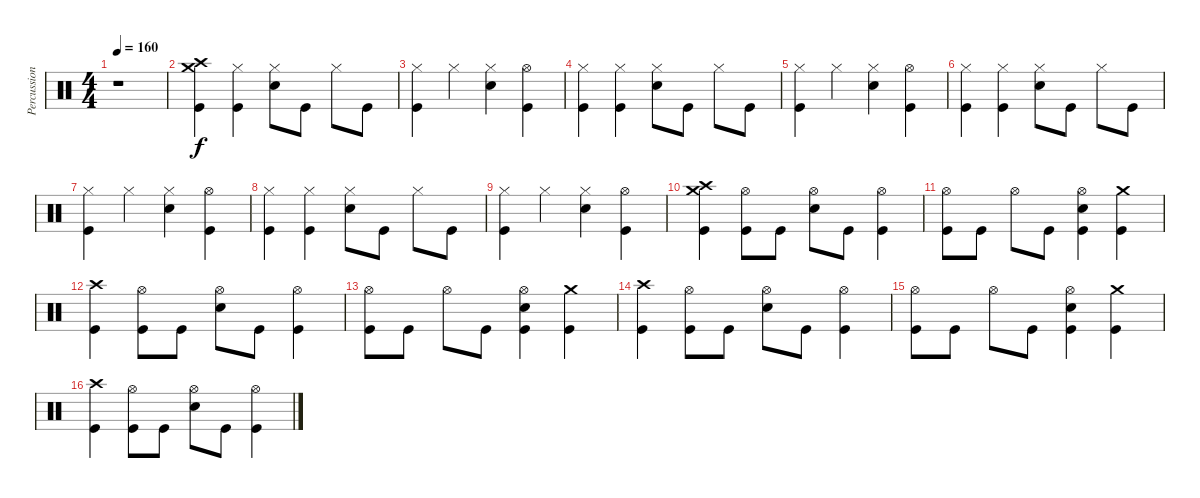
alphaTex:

\track ("Percussion" "Percussion") {instrument percussion}
\staff {score}
\articulation defaults
\ts (4 4)
\tempo 160
\clef neutral
\ks c
r.1{dy f} |
("Crash high (hit)" "Crash medium (hit)" "Kick (hit)").4 ("Hi-Hat (closed)" "Kick (hit)").4 ("Hi-Hat (closed)" "Electric Snare (hit)").8 "Kick (hit)".8 "Hi-Hat (closed)".8 "Kick (hit)".8 |
("Hi-Hat (closed)" "Kick (hit)").4 "Hi-Hat (closed)".4 ("Hi-Hat (closed)" "Electric Snare (hit)").4 ("Hi-Hat (open)" "Kick (hit)").4 |
("Hi-Hat (closed)" "Kick (hit)").4 ("Hi-Hat (closed)" "Kick (hit)").4 ("Hi-Hat (closed)" "Electric Snare (hit)").8 "Kick (hit)".8 "Hi-Hat (closed)".8 "Kick (hit)".8 |
("Hi-Hat (closed)" "Kick (hit)").4 "Hi-Hat (closed)".4 ("Hi-Hat (closed)" "Electric Snare (hit)").4 ("Hi-Hat (open)" "Kick (hit)").4 |
("Hi-Hat (closed)" "Kick (hit)").4 ("Hi-Hat (closed)" "Kick (hit)").4 ("Hi-Hat (closed)" "Electric Snare (hit)").8 "Kick (hit)".8 "Hi-Hat (closed)".8 "Kick (hit)".8 |
("Hi-Hat (closed)" "Kick (hit)").4 "Hi-Hat (closed)".4 ("Hi-Hat (closed)" "Electric Snare (hit)").4 ("Hi-Hat (open)" "Kick (hit)").4 |
("Hi-Hat (closed)" "Kick (hit)").4 ("Hi-Hat (closed)" "Kick (hit)").4 ("Hi-Hat (closed)" "Electric Snare (hit)").8 "Kick (hit)".8 "Hi-Hat (closed)".8 "Kick (hit)".8 |
("Hi-Hat (closed)" "Kick (hit)").4 "Hi-Hat (closed)".4 ("Hi-Hat (closed)" "Electric Snare (hit)").4 ("Hi-Hat (open)" "Kick (hit)").4 |
("Crash high (hit)" "Crash medium (hit)" "Kick (hit)").4 ("Hi-Hat (open)" "Kick (hit)").8 "Kick (hit)".8 ("Hi-Hat (open)" "Electric Snare (hit)").8 "Kick (hit)".8 ("Hi-Hat (open)" "Kick (hit)").4 |
("Hi-Hat (open)" "Kick (hit)").8 "Kick (hit)".8 "Hi-Hat (open)".8 "Kick (hit)".8 ("Hi-Hat (open)" "Electric Snare (hit)" "Kick (hit)").4 ("Crash medium (hit)" "Kick (hit)").4 |
("Crash high (hit)" "Kick (hit)").4 ("Hi-Hat (open)" "Kick (hit)").8 "Kick (hit)".8 ("Hi-Hat (open)" "Electric Snare (hit)").8 "Kick (hit)".8 ("Hi-Hat (open)" "Kick (hit)").4 |
("Hi-Hat (open)" "Kick (hit)").8 "Kick (hit)".8 "Hi-Hat (open)".8 "Kick (hit)".8 ("Hi-Hat (open)" "Electric Snare (hit)" "Kick (hit)").4 ("Crash medium (hit)" "Kick (hit)").4 |
("Crash high (hit)" "Kick (hit)").4 ("Hi-Hat (open)" "Kick (hit)").8 "Kick (hit)".8 ("Hi-Hat (open)" "Electric Snare (hit)").8 "Kick (hit)".8 ("Hi-Hat (open)" "Kick (hit)").4 |
("Hi-Hat (open)" "Kick (hit)").8 "Kick (hit)".8 "Hi-Hat (open)".8 "Kick (hit)".8 ("Hi-Hat (open)" "Electric Snare (hit)" "Kick (hit)").4 ("Crash medium (hit)" "Kick (hit)").4 |
("Crash high (hit)" "Kick (hit)").4 ("Hi-Hat (open)" "Kick (hit)").8 "Kick (hit)".8 ("Hi-Hat (open)" "Electric Snare (hit)").8 "Kick (hit)".8 ("Hi-Hat (open)" "Kick (hit)").4
